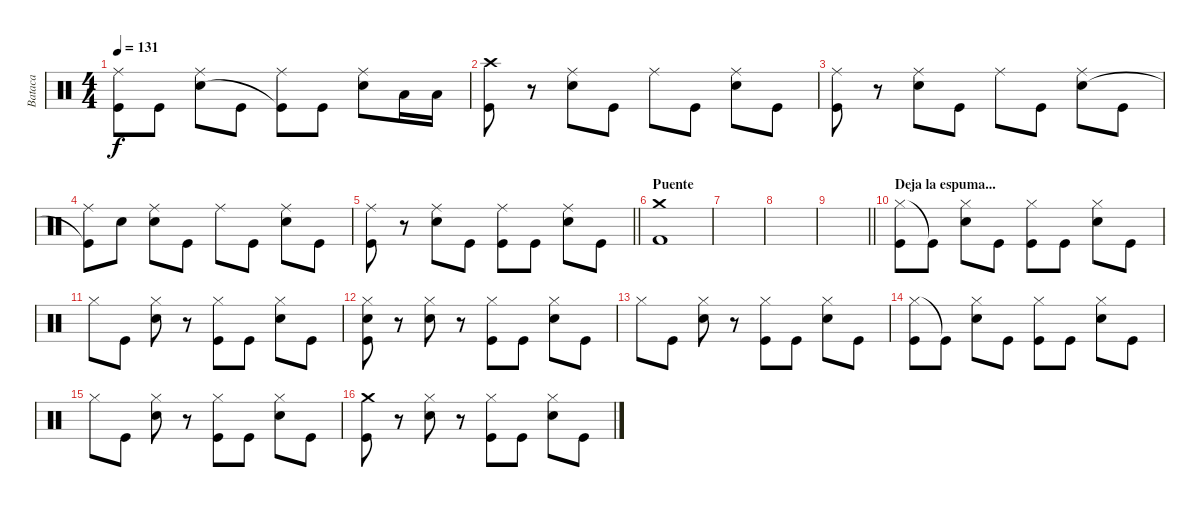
\track ("Bataca" "Bataca") {instrument percussion}
\staff {score}
\articulation defaults
\ts (4 4)
\tempo 131
\clef neutral
\ks c
("Ride (middle)" "Kick (hit)").8{dy f} "Kick (hit)".8 ("Ride (middle)" "Snare (hit) 2").8 "Kick (hit)".8 ("Ride (middle)" "Kick (hit)"{t}).8 "Kick (hit)".8 ("Ride (middle)" "Snare (hit) 2").8 "Low Tom (hit)".16 "Low Tom (hit)".16 |
("Crash high (hit)" "Kick (hit)").8 r.8 ("Ride (middle)" "Snare (hit) 2").8 "Kick (hit)".8 "Ride (middle)".8 "Kick (hit)".8 ("Ride (middle)" "Snare (hit) 2").8 "Kick (hit)".8 |
("Ride (middle)" "Kick (hit)").8 r.8 ("Ride (middle)" "Snare (hit) 2").8 "Kick (hit)".8 "Ride (middle)".8 "Kick (hit)".8 ("Ride (middle)" "Snare (hit) 2").8 "Kick (hit)".8 |
("Ride (middle)" "Kick (hit)"{t}).8 "Snare (hit)".8 ("Ride (middle)" "Snare (hit) 2").8 "Kick (hit)".8 "Ride (middle)".8 "Kick (hit)".8 ("Ride (middle)" "Snare (hit) 2").8 "Kick (hit)".8 |
\barLineRight lightlight
("Ride (middle)" "Kick (hit)").8 r.8 ("Ride (middle)" "Snare (hit) 2").8 "Kick (hit)".8 ("Ride (middle)" "Kick (hit)").8 "Kick (hit)".8 ("Ride (middle)" "Snare (hit) 2").8 "Kick (hit)".8 |
\section ("" "Puente")
("Crash medium (hit)" "Kick (hit) 2").1 |
|
|
\barLineRight lightlight
|
\section ("" "Deja la espuma...")
("Hi-Hat (closed)" "Kick (hit)").8 "Kick (hit)"{t}.8 ("Hi-Hat (closed)" "Snare (hit) 2").8 "Kick (hit)".8 ("Hi-Hat (closed)" "Kick (hit)").8 "Kick (hit)".8 ("Hi-Hat (closed)" "Snare (hit) 2").8 "Kick (hit)".8 |
"Hi-Hat (closed)".8 "Kick (hit)".8 ("Hi-Hat (closed)" "Snare (hit) 2").8 r.8 ("Hi-Hat (closed)" "Kick (hit)").8 "Kick (hit)".8 ("Hi-Hat (closed)" "Snare (hit) 2").8 "Kick (hit)".8 |
("Snare (hit)" "Hi-Hat (closed)" "Kick (hit)").8 r.8 ("Hi-Hat (closed)" "Snare (hit) 2").8 r.8 ("Hi-Hat (closed)" "Kick (hit)").8 "Kick (hit)".8 ("Hi-Hat (closed)" "Snare (hit) 2").8 "Kick (hit)".8 |
"Hi-Hat (closed)".8 "Kick (hit)".8 ("Hi-Hat (closed)" "Snare (hit) 2").8 r.8 ("Hi-Hat (closed)" "Kick (hit)").8 "Kick (hit)".8 ("Hi-Hat (closed)" "Snare (hit) 2").8 "Kick (hit)".8 |
("Hi-Hat (closed)" "Kick (hit)").8 "Kick (hit)"{t}.8 ("Hi-Hat (closed)" "Snare (hit) 2").8 "Kick (hit)".8 ("Hi-Hat (closed)" "Kick (hit)").8 "Kick (hit)".8 ("Hi-Hat (closed)" "Snare (hit) 2").8 "Kick (hit)".8 |
"Hi-Hat (closed)".8 "Kick (hit)".8 ("Hi-Hat (closed)" "Snare (hit) 2").8 r.8 ("Hi-Hat (closed)" "Kick (hit)").8 "Kick (hit)".8 ("Hi-Hat (closed)" "Snare (hit) 2").8 "Kick (hit)".8 |
("Crash medium (hit)" "Kick (hit)").8 r.8 ("Hi-Hat (closed)" "Snare (hit) 2").8 r.8 ("Hi-Hat (closed)" "Kick (hit)").8 "Kick (hit)".8 ("Hi-Hat (closed)" "Snare (hit) 2").8 "Kick (hit)".8
